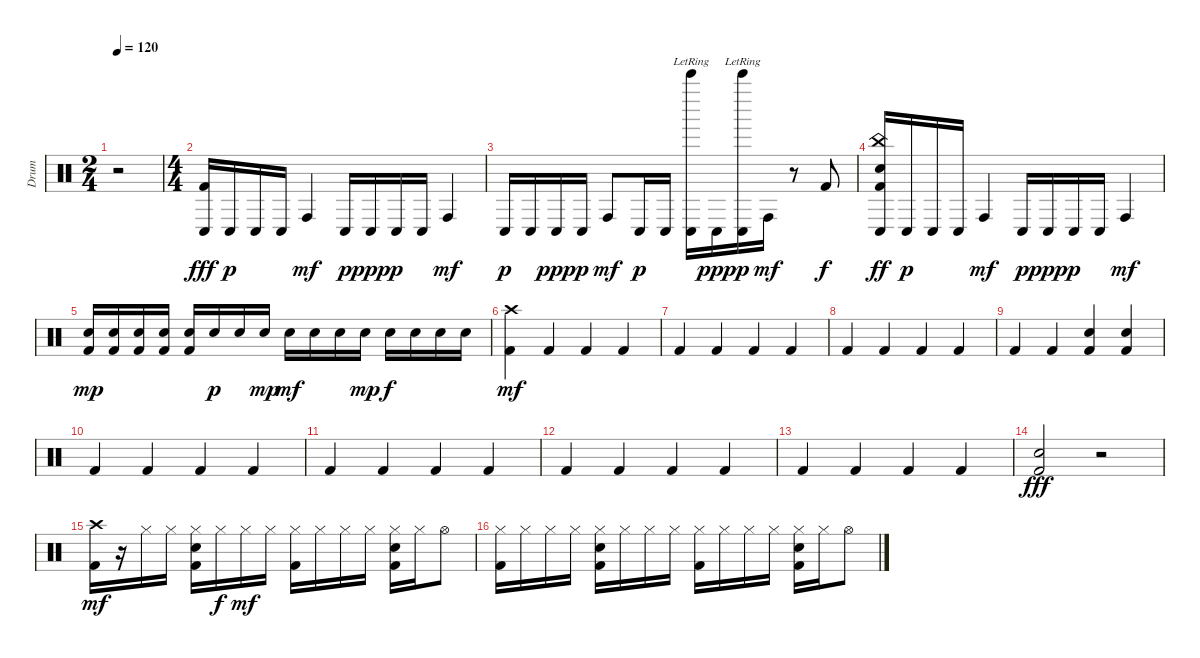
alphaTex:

\track ("Drum" "Drum") {instrument percussion}
\staff {score}
\articulation defaults
\ts (2 4)
\tempo 120
\clef neutral
\ks c
r.2{dy fff} |
\ts (4 4)
("Conga low (hit)" "Kick (hit) 2").16{volume 10 balance 6} "Conga low (hit)".16{dy p} "Conga low (hit)".16 "Conga low (hit)".16 "Conga high (hit)".4{dy mf} "Conga low (hit)".16{dy p} "Conga low (hit)".16{dy ppp} "Conga low (hit)".16{dy p} "Conga low (hit)".16 "Conga high (hit)".4{dy mf} |
"Conga low (hit)".16{dy p} "Conga low (hit)".16 "Conga low (hit)".16{dy ppp} "Conga low (hit)".16{dy p} "Conga high (hit)".8{dy mf} "Conga low (hit)".16{dy p} "Conga low (hit)".16 ("Bell Tree (hit)"{lr} "Conga low (hit)").16 "Conga low (hit)".16{dy ppp} ("Bell Tree (hit)"{lr} "Conga low (hit)").16{dy p} "Conga high (hit)".16{dy mf} r.8 "Kick (hit) 2".8{dy f} |
("China (hit)" "Conga low (hit)" "Snare (hit) 2" "Kick (hit) 2").16{dy ff} "Conga low (hit)".16{dy p} "Conga low (hit)".16 "Conga low (hit)".16 "Conga high (hit)".4{dy mf} "Conga low (hit)".16{dy p} "Conga low (hit)".16{dy ppp} "Conga low (hit)".16{dy p} "Conga low (hit)".16 "Conga high (hit)".4{dy mf} |
("Snare (hit) 2" "Kick (hit) 2").16{dy mp volume 13 balance 8} ("Snare (hit) 2" "Kick (hit) 2").16 ("Snare (hit) 2" "Kick (hit) 2").16 ("Snare (hit) 2" "Kick (hit) 2").16 ("Snare (hit) 2" "Kick (hit) 2").16 "Snare (hit) 2".16{dy p} "Snare (hit) 2".16 "Snare (hit) 2".16{dy mp} "Snare (hit) 2".16{dy mf} "Snare (hit) 2".16 "Snare (hit) 2".16 "Snare (hit) 2".16{dy mp} "Snare (hit) 2".16{dy f} "Snare (hit) 2".16 "Snare (hit) 2".16 "Snare (hit) 2".16 |
("Crash high (hit)" "Kick (hit) 2").4{dy mf} "Kick (hit) 2".4 "Kick (hit) 2".4 "Kick (hit) 2".4 |
"Kick (hit) 2".4 "Kick (hit) 2".4 "Kick (hit) 2".4 "Kick (hit) 2".4 |
"Kick (hit) 2".4 "Kick (hit) 2".4 "Kick (hit) 2".4 "Kick (hit) 2".4 |
"Kick (hit) 2".4 "Kick (hit) 2".4 ("Snare (hit) 2" "Kick (hit) 2").4 ("Snare (hit) 2" "Kick (hit) 2").4 |
"Kick (hit) 2".4 "Kick (hit) 2".4 "Kick (hit) 2".4 "Kick (hit) 2".4 |
"Kick (hit) 2".4 "Kick (hit) 2".4 "Kick (hit) 2".4 "Kick (hit) 2".4 |
"Kick (hit) 2".4 "Kick (hit) 2".4 "Kick (hit) 2".4 "Kick (hit) 2".4 |
"Kick (hit) 2".4 "Kick (hit) 2".4 "Kick (hit) 2".4 "Kick (hit) 2".4 |
("Snare (hit) 2" "Kick (hit) 2").2{dy fff} r.2 |
("Crash high (hit)" "Kick (hit) 2").16{dy mf} r.16 "Hi-Hat (closed)".16 "Hi-Hat (closed)".16 ("Hi-Hat (closed)" "Snare (hit) 2" "Kick (hit) 2").16 "Hi-Hat (closed)".16{dy f} "Hi-Hat (closed)".16{dy mf} "Hi-Hat (closed)".16 ("Hi-Hat (closed)" "Kick (hit) 2").16 "Hi-Hat (closed)".16 "Hi-Hat (closed)".16 "Hi-Hat (closed)".16 ("Hi-Hat (closed)" "Snare (hit) 2" "Kick (hit) 2").16 "Hi-Hat (closed)".16 "Hi-Hat (open)".8 |
("Hi-Hat (closed)" "Kick (hit) 2").16 "Hi-Hat (closed)".16 "Hi-Hat (closed)".16 "Hi-Hat (closed)".16 ("Hi-Hat (closed)" "Snare (hit) 2" "Kick (hit) 2").16 "Hi-Hat (closed)".16 "Hi-Hat (closed)".16 "Hi-Hat (closed)".16 ("Hi-Hat (closed)" "Kick (hit) 2").16 "Hi-Hat (closed)".16 "Hi-Hat (closed)".16 "Hi-Hat (closed)".16 ("Hi-Hat (closed)" "Snare (hit) 2" "Kick (hit) 2").16 "Hi-Hat (closed)".16 "Hi-Hat (open)".8
